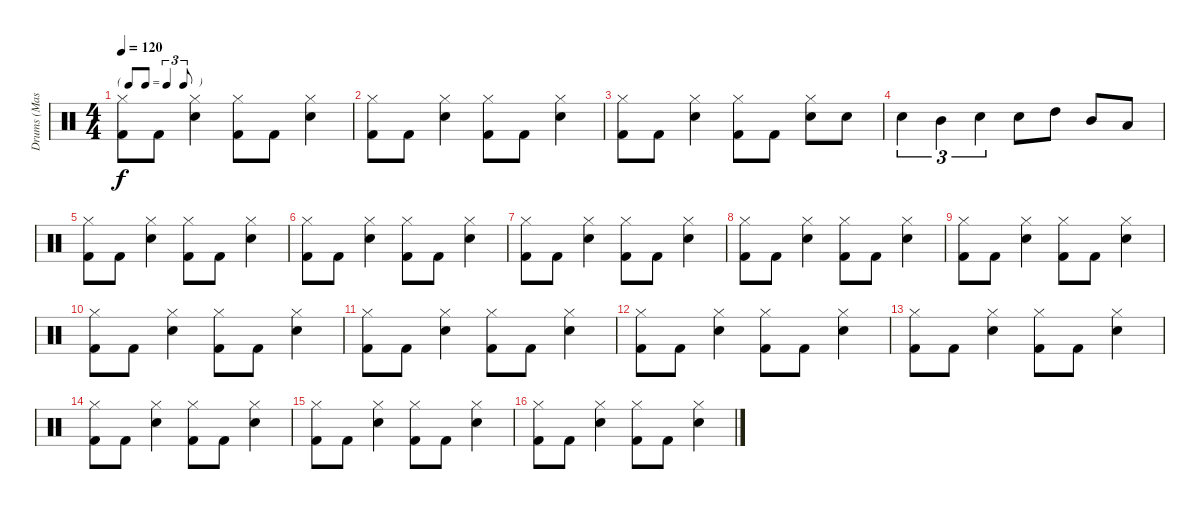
\track ("Drums (Mason)" "Drums (Mas") {instrument percussion}
\staff {score}
\articulation defaults
\ts (4 4)
\tf triplet8th
\tempo 120
\clef neutral
\ks c
("Hi-Hat (closed)" "Kick (hit) 2").8{dy f} "Kick (hit) 2".8 ("Hi-Hat (closed)" "Electric Snare (hit)").4 ("Hi-Hat (closed)" "Kick (hit) 2").8 "Kick (hit) 2".8 ("Hi-Hat (closed)" "Electric Snare (hit)").4 |
("Hi-Hat (closed)" "Kick (hit) 2").8 "Kick (hit) 2".8 ("Hi-Hat (closed)" "Electric Snare (hit)").4 ("Hi-Hat (closed)" "Kick (hit) 2").8 "Kick (hit) 2".8 ("Hi-Hat (closed)" "Electric Snare (hit)").4 |
("Hi-Hat (closed)" "Kick (hit) 2").8 "Kick (hit) 2".8 ("Hi-Hat (closed)" "Electric Snare (hit)").4 ("Hi-Hat (closed)" "Kick (hit) 2").8 "Kick (hit) 2".8 ("Hi-Hat (closed)" "Electric Snare (hit)").8 "Electric Snare (hit)".8 |
"Electric Snare (hit)".4{tu (3 2)} "Mid Tom (hit)".4{tu (3 2)} "Electric Snare (hit)".4{tu (3 2)} "Electric Snare (hit)".8 "High Tom (hit)".8 "Mid Tom (hit)".8 "Low Tom (hit)".8 |
("Hi-Hat (closed)" "Kick (hit) 2").8 "Kick (hit) 2".8 ("Hi-Hat (closed)" "Electric Snare (hit)").4 ("Hi-Hat (closed)" "Kick (hit) 2").8 "Kick (hit) 2".8 ("Hi-Hat (closed)" "Electric Snare (hit)").4 |
("Hi-Hat (closed)" "Kick (hit) 2").8 "Kick (hit) 2".8 ("Hi-Hat (closed)" "Electric Snare (hit)").4 ("Hi-Hat (closed)" "Kick (hit) 2").8 "Kick (hit) 2".8 ("Hi-Hat (closed)" "Electric Snare (hit)").4 |
("Hi-Hat (closed)" "Kick (hit) 2").8 "Kick (hit) 2".8 ("Hi-Hat (closed)" "Electric Snare (hit)").4 ("Hi-Hat (closed)" "Kick (hit) 2").8 "Kick (hit) 2".8 ("Hi-Hat (closed)" "Electric Snare (hit)").4 |
("Hi-Hat (closed)" "Kick (hit) 2").8 "Kick (hit) 2".8 ("Hi-Hat (closed)" "Electric Snare (hit)").4 ("Hi-Hat (closed)" "Kick (hit) 2").8 "Kick (hit) 2".8 ("Hi-Hat (closed)" "Electric Snare (hit)").4 |
("Hi-Hat (closed)" "Kick (hit) 2").8 "Kick (hit) 2".8 ("Hi-Hat (closed)" "Electric Snare (hit)").4 ("Hi-Hat (closed)" "Kick (hit) 2").8 "Kick (hit) 2".8 ("Hi-Hat (closed)" "Electric Snare (hit)").4 |
("Hi-Hat (closed)" "Kick (hit) 2").8 "Kick (hit) 2".8 ("Hi-Hat (closed)" "Electric Snare (hit)").4 ("Hi-Hat (closed)" "Kick (hit) 2").8 "Kick (hit) 2".8 ("Hi-Hat (closed)" "Electric Snare (hit)").4 |
("Hi-Hat (closed)" "Kick (hit) 2").8 "Kick (hit) 2".8 ("Hi-Hat (closed)" "Electric Snare (hit)").4 ("Hi-Hat (closed)" "Kick (hit) 2").8 "Kick (hit) 2".8 ("Hi-Hat (closed)" "Electric Snare (hit)").4 |
("Hi-Hat (closed)" "Kick (hit) 2").8 "Kick (hit) 2".8 ("Hi-Hat (closed)" "Electric Snare (hit)").4 ("Hi-Hat (closed)" "Kick (hit) 2").8 "Kick (hit) 2".8 ("Hi-Hat (closed)" "Electric Snare (hit)").4 |
("Hi-Hat (closed)" "Kick (hit) 2").8 "Kick (hit) 2".8 ("Hi-Hat (closed)" "Electric Snare (hit)").4 ("Hi-Hat (closed)" "Kick (hit) 2").8 "Kick (hit) 2".8 ("Hi-Hat (closed)" "Electric Snare (hit)").4 |
("Hi-Hat (closed)" "Kick (hit) 2").8 "Kick (hit) 2".8 ("Hi-Hat (closed)" "Electric Snare (hit)").4 ("Hi-Hat (closed)" "Kick (hit) 2").8 "Kick (hit) 2".8 ("Hi-Hat (closed)" "Electric Snare (hit)").4 |
("Hi-Hat (closed)" "Kick (hit) 2").8 "Kick (hit) 2".8 ("Hi-Hat (closed)" "Electric Snare (hit)").4 ("Hi-Hat (closed)" "Kick (hit) 2").8 "Kick (hit) 2".8 ("Hi-Hat (closed)" "Electric Snare (hit)").4 |
("Hi-Hat (closed)" "Kick (hit) 2").8 "Kick (hit) 2".8 ("Hi-Hat (closed)" "Electric Snare (hit)").4 ("Hi-Hat (closed)" "Kick (hit) 2").8 "Kick (hit) 2".8 ("Hi-Hat (closed)" "Electric Snare (hit)").4
